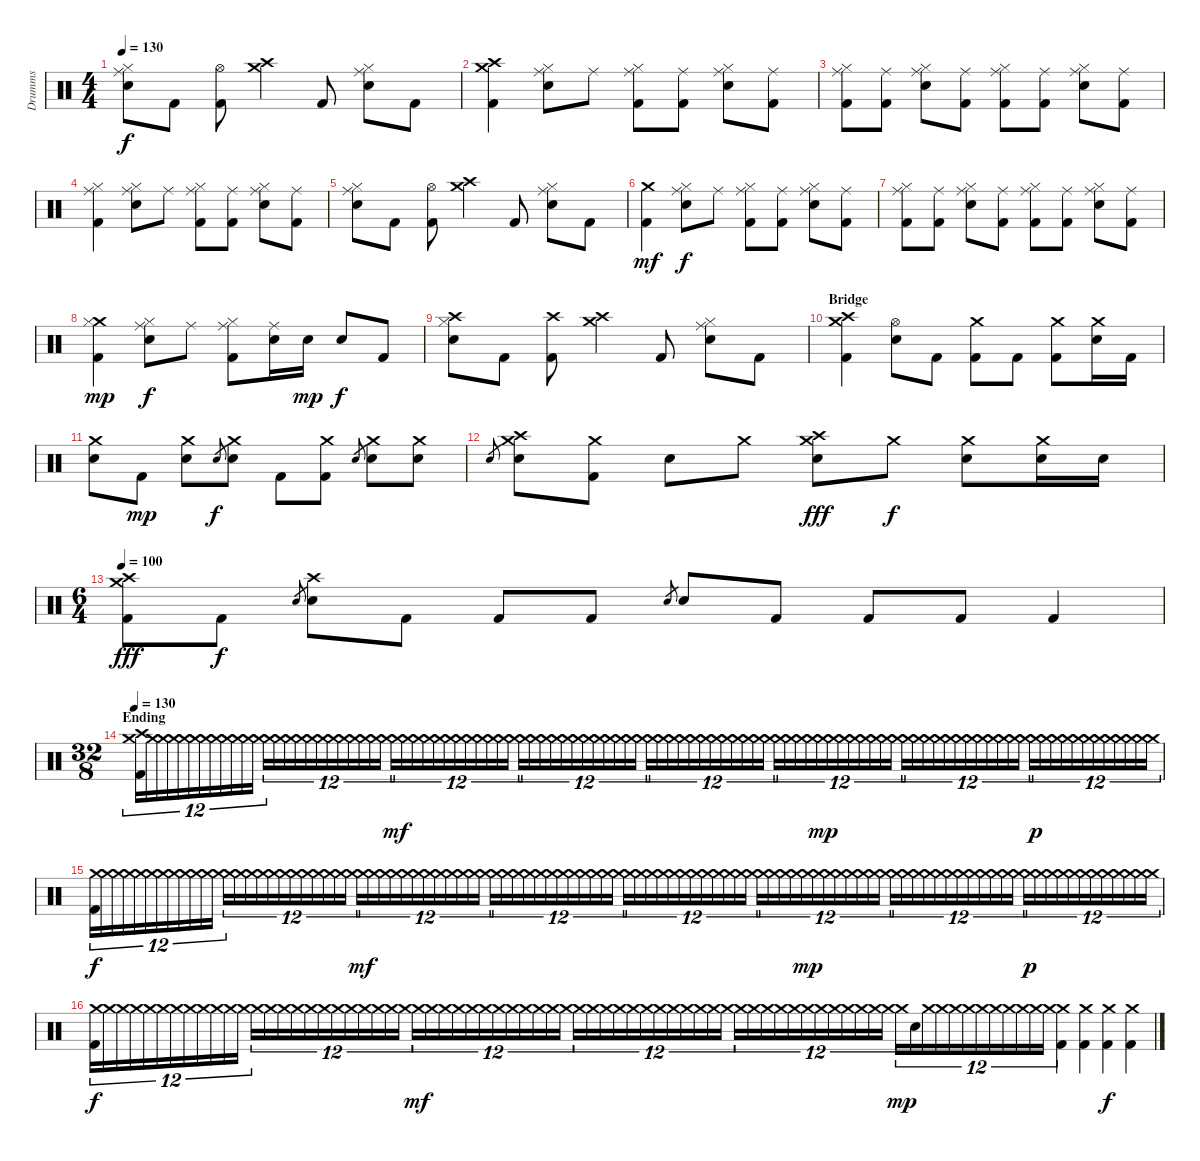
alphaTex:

\track ("Drumms" "Drumms") {instrument percussion}
\staff {score}
\articulation defaults
\ts (4 4)
\tempo 130
\clef neutral
\ks c
("Ride (middle)" "Hi-Hat (closed)" "Electric Snare (hit)").8{dy f} "Kick (hit) 2".8 ("Hi-Hat (open)" "Kick (hit) 2").8 ("Crash medium (hit)" "Crash high (hit)").4 "Kick (hit) 2".8 ("Ride (middle)" "Hi-Hat (closed)" "Electric Snare (hit)").8 "Kick (hit) 2".8 |
("Crash medium (hit)" "Crash high (hit)" "Kick (hit) 2").4 ("Ride (middle)" "Hi-Hat (closed)" "Electric Snare (hit)").8 "Ride (middle)".8 ("Ride (middle)" "Hi-Hat (closed)" "Kick (hit) 2").8 ("Ride (middle)" "Kick (hit) 2").8 ("Ride (middle)" "Hi-Hat (closed)" "Electric Snare (hit)").8 ("Ride (middle)" "Kick (hit) 2").8 |
("Ride (middle)" "Hi-Hat (closed)" "Kick (hit) 2").8 ("Ride (middle)" "Kick (hit) 2").8 ("Ride (middle)" "Hi-Hat (closed)" "Electric Snare (hit)").8 ("Ride (middle)" "Kick (hit) 2").8 ("Ride (middle)" "Hi-Hat (closed)" "Kick (hit) 2").8 ("Ride (middle)" "Kick (hit) 2").8 ("Ride (middle)" "Hi-Hat (closed)" "Electric Snare (hit)").8 ("Ride (middle)" "Kick (hit) 2").8 |
("Ride (middle)" "Hi-Hat (closed)" "Kick (hit) 2").4 ("Ride (middle)" "Hi-Hat (closed)" "Electric Snare (hit)").8 "Ride (middle)".8 ("Ride (middle)" "Hi-Hat (closed)" "Kick (hit) 2").8 ("Ride (middle)" "Kick (hit) 2").8 ("Ride (middle)" "Hi-Hat (closed)" "Electric Snare (hit)").8 ("Ride (middle)" "Kick (hit) 2").8 |
("Ride (middle)" "Hi-Hat (closed)" "Electric Snare (hit)").8 "Kick (hit) 2".8 ("Hi-Hat (open)" "Kick (hit) 2").8 ("Crash medium (hit)" "Crash high (hit)").4 "Kick (hit) 2".8 ("Ride (middle)" "Hi-Hat (closed)" "Electric Snare (hit)").8 "Kick (hit) 2".8 |
("Crash medium (hit)" "Kick (hit) 2").4{dy mf} ("Ride (middle)" "Hi-Hat (closed)" "Electric Snare (hit)").8{dy f} "Ride (middle)".8 ("Ride (middle)" "Hi-Hat (closed)" "Kick (hit) 2").8 ("Ride (middle)" "Kick (hit) 2").8 ("Ride (middle)" "Hi-Hat (closed)" "Electric Snare (hit)").8 ("Ride (middle)" "Kick (hit) 2").8 |
("Ride (middle)" "Hi-Hat (closed)" "Kick (hit) 2").8 ("Ride (middle)" "Kick (hit) 2").8 ("Ride (middle)" "Hi-Hat (closed)" "Electric Snare (hit)").8 ("Ride (middle)" "Kick (hit) 2").8 ("Ride (middle)" "Hi-Hat (closed)" "Kick (hit) 2").8 ("Ride (middle)" "Kick (hit) 2").8 ("Ride (middle)" "Hi-Hat (closed)" "Electric Snare (hit)").8 ("Ride (middle)" "Kick (hit) 2").8 |
("Crash medium (hit)" "Hi-Hat (closed)" "Kick (hit) 2").4{dy mp} ("Ride (middle)" "Hi-Hat (closed)" "Electric Snare (hit)").8{dy f} "Ride (middle)".8 ("Ride (middle)" "Hi-Hat (closed)" "Kick (hit) 2").8 ("Ride (middle)" "Electric Snare (hit)").16 "Electric Snare (hit)".16{dy mp} "Electric Snare (hit)".8{dy f} "Kick (hit) 2".8 |
("Crash high (hit)" "Hi-Hat (closed)" "Electric Snare (hit)").8 "Kick (hit) 2".8 ("Crash high (hit)" "Kick (hit) 2").8 ("Crash medium (hit)" "Crash high (hit)").4 "Kick (hit) 2".8 ("Ride (middle)" "Hi-Hat (closed)" "Electric Snare (hit)").8 "Kick (hit) 2".8 |
\section ("" "Bridge")
("Crash medium (hit)" "Crash high (hit)" "Kick (hit) 2").4 ("Hi-Hat (open)" "Electric Snare (hit)").8 "Kick (hit) 2".8 ("Crash medium (hit)" "Kick (hit) 2").8 "Kick (hit) 2".8 ("Crash medium (hit)" "Kick (hit) 2").8 ("Crash medium (hit)" "Electric Snare (hit)").16 "Kick (hit) 2".16 |
("Crash medium (hit)" "Electric Snare (hit)").8 "Kick (hit) 2".8{dy mp} ("Crash medium (hit)" "Electric Snare (hit)").8 "Electric Snare (hit)".8{gr dy f} ("Crash medium (hit)" "Electric Snare (hit)").8 "Kick (hit) 2".8 ("Crash medium (hit)" "Kick (hit) 2").8 "Electric Snare (hit)".8{gr} ("Crash medium (hit)" "Electric Snare (hit)").8 ("Crash medium (hit)" "Electric Snare (hit)").8 |
"Electric Snare (hit)".8{gr} ("Crash medium (hit)" "Crash high (hit)" "Electric Snare (hit)").8 ("Crash medium (hit)" "Kick (hit) 2").8 "Electric Snare (hit)".8 "Crash medium (hit)".8 ("Crash high (hit)" "Crash medium (hit)" "Electric Snare (hit)").8{dy fff} "Crash medium (hit)".8{dy f} ("Crash medium (hit)" "Electric Snare (hit)").8 ("Crash medium (hit)" "Electric Snare (hit)").16 "Electric Snare (hit)".16 |
\ts (6 4)
\tempo 100
("Crash medium (hit)" "Crash high (hit)" "Kick (hit) 2").8{dy fff} "Kick (hit) 2".8{dy f} "Electric Snare (hit)".8{gr} ("Crash high (hit)" "Electric Snare (hit)").8 "Kick (hit) 2".8 "Kick (hit) 2".8 "Kick (hit) 2".8 "Electric Snare (hit)".8{gr} "Electric Snare (hit)".8 "Kick (hit) 2".8 "Kick (hit) 2".8 "Kick (hit) 2".8 "Kick (hit) 2".4 |
\ts (32 8)
\section ("" "Ending")
\tempo 130
("Crash medium (hit)" "Crash high (hit)" "Kick (hit) 2").16{tu (12 8)} "Crash medium (hit)".16{tu (12 8)} "Crash medium (hit)".16{tu (12 8)} "Crash medium (hit)".16{tu (12 8)} "Crash medium (hit)".16{tu (12 8)} "Crash medium (hit)".16{tu (12 8)} "Crash medium (hit)".16{tu (12 8)} "Crash medium (hit)".16{tu (12 8)} "Crash medium (hit)".16{tu (12 8)} "Crash medium (hit)".16{tu (12 8)} "Crash medium (hit)".16{tu (12 8)} "Crash medium (hit)".16{tu (12 8)} "Crash medium (hit)".16{tu (12 8)} "Crash medium (hit)".16{tu (12 8)} "Crash medium (hit)".16{tu (12 8)} "Crash medium (hit)".16{tu (12 8)} "Crash medium (hit)".16{tu (12 8)} "Crash medium (hit)".16{tu (12 8)} "Crash medium (hit)".16{tu (12 8)} "Crash medium (hit)".16{tu (12 8)} "Crash medium (hit)".16{tu (12 8)} "Crash medium (hit)".16{tu (12 8)} "Crash medium (hit)".16{tu (12 8)} "Crash medium (hit)".16{tu (12 8)} "Crash medium (hit)".16{tu (12 8) dy mf} "Crash medium (hit)".16{tu (12 8)} "Crash medium (hit)".16{tu (12 8)} "Crash medium (hit)".16{tu (12 8)} "Crash medium (hit)".16{tu (12 8)} "Crash medium (hit)".16{tu (12 8)} "Crash medium (hit)".16{tu (12 8)} "Crash medium (hit)".16{tu (12 8)} "Crash medium (hit)".16{tu (12 8)} "Crash medium (hit)".16{tu (12 8)} "Crash medium (hit)".16{tu (12 8)} "Crash medium (hit)".16{tu (12 8)} "Crash medium (hit)".16{tu (12 8)} "Crash medium (hit)".16{tu (12 8)} "Crash medium (hit)".16{tu (12 8)} "Crash medium (hit)".16{tu (12 8)} "Crash medium (hit)".16{tu (12 8)} "Crash medium (hit)".16{tu (12 8)} "Crash medium (hit)".16{tu (12 8)} "Crash medium (hit)".16{tu (12 8)} "Crash medium (hit)".16{tu (12 8)} "Crash medium (hit)".16{tu (12 8)} "Crash medium (hit)".16{tu (12 8)} "Crash medium (hit)".16{tu (12 8)} "Crash medium (hit)".16{tu (12 8)} "Crash medium (hit)".16{tu (12 8)} "Crash medium (hit)".16{tu (12 8)} "Crash medium (hit)".16{tu (12 8)} "Crash medium (hit)".16{tu (12 8)} "Crash medium (hit)".16{tu (12 8)} "Crash medium (hit)".16{tu (12 8)} "Crash medium (hit)".16{tu (12 8)} "Crash medium (hit)".16{tu (12 8)} "Crash medium (hit)".16{tu (12 8)} "Crash medium (hit)".16{tu (12 8)} "Crash medium (hit)".16{tu (12 8)} "Crash medium (hit)".16{tu (12 8)} "Crash medium (hit)".16{tu (12 8)} "Crash medium (hit)".16{tu (12 8)} "Crash medium (hit)".16{tu (12 8)} "Crash medium (hit)".16{tu (12 8) dy mp} "Crash medium (hit)".16{tu (12 8)} "Crash medium (hit)".16{tu (12 8)} "Crash medium (hit)".16{tu (12 8)} "Crash medium (hit)".16{tu (12 8)} "Crash medium (hit)".16{tu (12 8)} "Crash medium (hit)".16{tu (12 8)} "Crash medium (hit)".16{tu (12 8)} "Crash medium (hit)".16{tu (12 8)} "Crash medium (hit)".16{tu (12 8)} "Crash medium (hit)".16{tu (12 8)} "Crash medium (hit)".16{tu (12 8)} "Crash medium (hit)".16{tu (12 8)} "Crash medium (hit)".16{tu (12 8)} "Crash medium (hit)".16{tu (12 8)} "Crash medium (hit)".16{tu (12 8)} "Crash medium (hit)".16{tu (12 8)} "Crash medium (hit)".16{tu (12 8)} "Crash medium (hit)".16{tu (12 8)} "Crash medium (hit)".16{tu (12 8)} "Crash medium (hit)".16{tu (12 8) dy p} "Crash medium (hit)".16{tu (12 8)} "Crash medium (hit)".16{tu (12 8)} "Crash medium (hit)".16{tu (12 8)} "Crash medium (hit)".16{tu (12 8)} "Crash medium (hit)".16{tu (12 8)} "Crash medium (hit)".16{tu (12 8)} "Crash medium (hit)".16{tu (12 8)} "Crash medium (hit)".16{tu (12 8)} "Crash medium (hit)".16{tu (12 8)} "Crash medium (hit)".16{tu (12 8)} "Crash medium (hit)".16{tu (12 8)} |
("Crash medium (hit)" "Kick (hit) 2").16{tu (12 8) dy f} "Crash medium (hit)".16{tu (12 8)} "Crash medium (hit)".16{tu (12 8)} "Crash medium (hit)".16{tu (12 8)} "Crash medium (hit)".16{tu (12 8)} "Crash medium (hit)".16{tu (12 8)} "Crash medium (hit)".16{tu (12 8)} "Crash medium (hit)".16{tu (12 8)} "Crash medium (hit)".16{tu (12 8)} "Crash medium (hit)".16{tu (12 8)} "Crash medium (hit)".16{tu (12 8)} "Crash medium (hit)".16{tu (12 8)} "Crash medium (hit)".16{tu (12 8)} "Crash medium (hit)".16{tu (12 8)} "Crash medium (hit)".16{tu (12 8)} "Crash medium (hit)".16{tu (12 8)} "Crash medium (hit)".16{tu (12 8)} "Crash medium (hit)".16{tu (12 8)} "Crash medium (hit)".16{tu (12 8)} "Crash medium (hit)".16{tu (12 8)} "Crash medium (hit)".16{tu (12 8)} "Crash medium (hit)".16{tu (12 8)} "Crash medium (hit)".16{tu (12 8)} "Crash medium (hit)".16{tu (12 8)} "Crash medium (hit)".16{tu (12 8) dy mf} "Crash medium (hit)".16{tu (12 8)} "Crash medium (hit)".16{tu (12 8)} "Crash medium (hit)".16{tu (12 8)} "Crash medium (hit)".16{tu (12 8)} "Crash medium (hit)".16{tu (12 8)} "Crash medium (hit)".16{tu (12 8)} "Crash medium (hit)".16{tu (12 8)} "Crash medium (hit)".16{tu (12 8)} "Crash medium (hit)".16{tu (12 8)} "Crash medium (hit)".16{tu (12 8)} "Crash medium (hit)".16{tu (12 8)} "Crash medium (hit)".16{tu (12 8)} "Crash medium (hit)".16{tu (12 8)} "Crash medium (hit)".16{tu (12 8)} "Crash medium (hit)".16{tu (12 8)} "Crash medium (hit)".16{tu (12 8)} "Crash medium (hit)".16{tu (12 8)} "Crash medium (hit)".16{tu (12 8)} "Crash medium (hit)".16{tu (12 8)} "Crash medium (hit)".16{tu (12 8)} "Crash medium (hit)".16{tu (12 8)} "Crash medium (hit)".16{tu (12 8)} "Crash medium (hit)".16{tu (12 8)} "Crash medium (hit)".16{tu (12 8)} "Crash medium (hit)".16{tu (12 8)} "Crash medium (hit)".16{tu (12 8)} "Crash medium (hit)".16{tu (12 8)} "Crash medium (hit)".16{tu (12 8)} "Crash medium (hit)".16{tu (12 8)} "Crash medium (hit)".16{tu (12 8)} "Crash medium (hit)".16{tu (12 8)} "Crash medium (hit)".16{tu (12 8)} "Crash medium (hit)".16{tu (12 8)} "Crash medium (hit)".16{tu (12 8)} "Crash medium (hit)".16{tu (12 8)} "Crash medium (hit)".16{tu (12 8)} "Crash medium (hit)".16{tu (12 8)} "Crash medium (hit)".16{tu (12 8)} "Crash medium (hit)".16{tu (12 8)} "Crash medium (hit)".16{tu (12 8) dy mp} "Crash medium (hit)".16{tu (12 8)} "Crash medium (hit)".16{tu (12 8)} "Crash medium (hit)".16{tu (12 8)} "Crash medium (hit)".16{tu (12 8)} "Crash medium (hit)".16{tu (12 8)} "Crash medium (hit)".16{tu (12 8)} "Crash medium (hit)".16{tu (12 8)} "Crash medium (hit)".16{tu (12 8)} "Crash medium (hit)".16{tu (12 8)} "Crash medium (hit)".16{tu (12 8)} "Crash medium (hit)".16{tu (12 8)} "Crash medium (hit)".16{tu (12 8)} "Crash medium (hit)".16{tu (12 8)} "Crash medium (hit)".16{tu (12 8)} "Crash medium (hit)".16{tu (12 8)} "Crash medium (hit)".16{tu (12 8)} "Crash medium (hit)".16{tu (12 8)} "Crash medium (hit)".16{tu (12 8)} "Crash medium (hit)".16{tu (12 8)} "Crash medium (hit)".16{tu (12 8) dy p} "Crash medium (hit)".16{tu (12 8)} "Crash medium (hit)".16{tu (12 8)} "Crash medium (hit)".16{tu (12 8)} "Crash medium (hit)".16{tu (12 8)} "Crash medium (hit)".16{tu (12 8)} "Crash medium (hit)".16{tu (12 8)} "Crash medium (hit)".16{tu (12 8)} "Crash medium (hit)".16{tu (12 8)} "Crash medium (hit)".16{tu (12 8)} "Crash medium (hit)".16{tu (12 8)} "Crash medium (hit)".16{tu (12 8)} |
("Crash medium (hit)" "Kick (hit) 2").16{tu (12 8) dy f} "Crash medium (hit)".16{tu (12 8)} "Crash medium (hit)".16{tu (12 8)} "Crash medium (hit)".16{tu (12 8)} "Crash medium (hit)".16{tu (12 8)} "Crash medium (hit)".16{tu (12 8)} "Crash medium (hit)".16{tu (12 8)} "Crash medium (hit)".16{tu (12 8)} "Crash medium (hit)".16{tu (12 8)} "Crash medium (hit)".16{tu (12 8)} "Crash medium (hit)".16{tu (12 8)} "Crash medium (hit)".16{tu (12 8)} "Crash medium (hit)".16{tu (12 8)} "Crash medium (hit)".16{tu (12 8)} "Crash medium (hit)".16{tu (12 8)} "Crash medium (hit)".16{tu (12 8)} "Crash medium (hit)".16{tu (12 8)} "Crash medium (hit)".16{tu (12 8)} "Crash medium (hit)".16{tu (12 8)} "Crash medium (hit)".16{tu (12 8)} "Crash medium (hit)".16{tu (12 8)} "Crash medium (hit)".16{tu (12 8)} "Crash medium (hit)".16{tu (12 8)} "Crash medium (hit)".16{tu (12 8)} "Crash medium (hit)".16{tu (12 8) dy mf} "Crash medium (hit)".16{tu (12 8)} "Crash medium (hit)".16{tu (12 8)} "Crash medium (hit)".16{tu (12 8)} "Crash medium (hit)".16{tu (12 8)} "Crash medium (hit)".16{tu (12 8)} "Crash medium (hit)".16{tu (12 8)} "Crash medium (hit)".16{tu (12 8)} "Crash medium (hit)".16{tu (12 8)} "Crash medium (hit)".16{tu (12 8)} "Crash medium (hit)".16{tu (12 8)} "Crash medium (hit)".16{tu (12 8)} "Crash medium (hit)".16{tu (12 8)} "Crash medium (hit)".16{tu (12 8)} "Crash medium (hit)".16{tu (12 8)} "Crash medium (hit)".16{tu (12 8)} "Crash medium (hit)".16{tu (12 8)} "Crash medium (hit)".16{tu (12 8)} "Crash medium (hit)".16{tu (12 8)} "Crash medium (hit)".16{tu (12 8)} "Crash medium (hit)".16{tu (12 8)} "Crash medium (hit)".16{tu (12 8)} "Crash medium (hit)".16{tu (12 8)} "Crash medium (hit)".16{tu (12 8)} "Crash medium (hit)".16{tu (12 8)} "Crash medium (hit)".16{tu (12 8)} "Crash medium (hit)".16{tu (12 8)} "Crash medium (hit)".16{tu (12 8)} "Crash medium (hit)".16{tu (12 8)} "Crash medium (hit)".16{tu (12 8)} "Crash medium (hit)".16{tu (12 8)} "Crash medium (hit)".16{tu (12 8)} "Crash medium (hit)".16{tu (12 8)} "Crash medium (hit)".16{tu (12 8)} "Crash medium (hit)".16{tu (12 8)} "Crash medium (hit)".16{tu (12 8)} "Crash medium (hit)".16{tu (12 8) dy mp} "Snare (hit)".16{tu (12 8)} "Crash medium (hit)".16{tu (12 8)} "Crash medium (hit)".16{tu (12 8)} "Crash medium (hit)".16{tu (12 8)} "Crash medium (hit)".16{tu (12 8)} "Crash medium (hit)".16{tu (12 8)} "Crash medium (hit)".16{tu (12 8)} "Crash medium (hit)".16{tu (12 8)} "Crash medium (hit)".16{tu (12 8)} "Crash medium (hit)".16{tu (12 8)} "Crash medium (hit)".16{tu (12 8)} ("Crash medium (hit)" "Kick (hit) 2").4 ("Crash medium (hit)" "Kick (hit) 2").4 ("Crash medium (hit)" "Kick (hit) 2").4{dy f} ("Crash medium (hit)" "Kick (hit) 2").4
